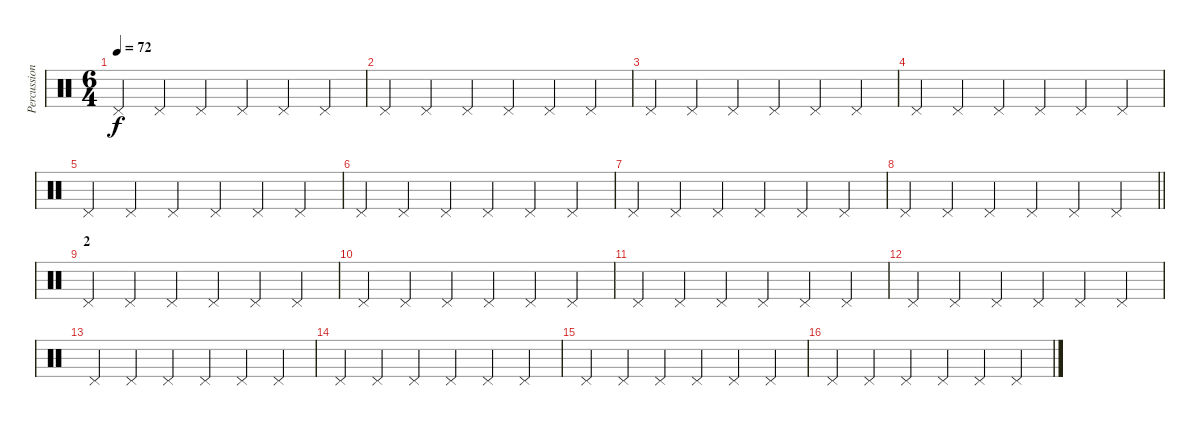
\track ("Percussion" "Percussion") {instrument percussion}
\staff {score}
\articulation defaults
\ts (6 4)
\tempo 72
\clef neutral
\ks c "Pedal Hi-Hat (hit)".4{dy f} "Pedal Hi-Hat (hit)".4 "Pedal Hi-Hat (hit)".4 "Pedal Hi-Hat (hit)".4 "Pedal Hi-Hat (hit)".4 "Pedal Hi-Hat (hit)".4
|
"Pedal Hi-Hat (hit)".4 "Pedal Hi-Hat (hit)".4 "Pedal Hi-Hat (hit)".4 "Pedal Hi-Hat (hit)".4 "Pedal Hi-Hat (hit)".4 "Pedal Hi-Hat (hit)".4 |
"Pedal Hi-Hat (hit)".4 "Pedal Hi-Hat (hit)".4 "Pedal Hi-Hat (hit)".4 "Pedal Hi-Hat (hit)".4 "Pedal Hi-Hat (hit)".4 "Pedal Hi-Hat (hit)".4 |
"Pedal Hi-Hat (hit)".4 "Pedal Hi-Hat (hit)".4 "Pedal Hi-Hat (hit)".4 "Pedal Hi-Hat (hit)".4 "Pedal Hi-Hat (hit)".4 "Pedal Hi-Hat (hit)".4 |
"Pedal Hi-Hat (hit)".4 "Pedal Hi-Hat (hit)".4 "Pedal Hi-Hat (hit)".4 "Pedal Hi-Hat (hit)".4 "Pedal Hi-Hat (hit)".4 "Pedal Hi-Hat (hit)".4 |
"Pedal Hi-Hat (hit)".4 "Pedal Hi-Hat (hit)".4 "Pedal Hi-Hat (hit)".4 "Pedal Hi-Hat (hit)".4 "Pedal Hi-Hat (hit)".4 "Pedal Hi-Hat (hit)".4 |
"Pedal Hi-Hat (hit)".4 "Pedal Hi-Hat (hit)".4 "Pedal Hi-Hat (hit)".4 "Pedal Hi-Hat (hit)".4 "Pedal Hi-Hat (hit)".4 "Pedal Hi-Hat (hit)".4 |
\barLineRight lightlight "Pedal Hi-Hat (hit)".4 "Pedal Hi-Hat (hit)".4 "Pedal Hi-Hat (hit)".4 "Pedal Hi-Hat (hit)".4 "Pedal Hi-Hat (hit)".4 "Pedal Hi-Hat (hit)".4
|
\section ("" "2")
"Pedal Hi-Hat (hit)".4 "Pedal Hi-Hat (hit)".4 "Pedal Hi-Hat (hit)".4 "Pedal Hi-Hat (hit)".4 "Pedal Hi-Hat (hit)".4 "Pedal Hi-Hat (hit)".4 |
"Pedal Hi-Hat (hit)".4 "Pedal Hi-Hat (hit)".4 "Pedal Hi-Hat (hit)".4 "Pedal Hi-Hat (hit)".4 "Pedal Hi-Hat (hit)".4 "Pedal Hi-Hat (hit)".4 |
"Pedal Hi-Hat (hit)".4 "Pedal Hi-Hat (hit)".4 "Pedal Hi-Hat (hit)".4 "Pedal Hi-Hat (hit)".4 "Pedal Hi-Hat (hit)".4 "Pedal Hi-Hat (hit)".4 |
"Pedal Hi-Hat (hit)".4 "Pedal Hi-Hat (hit)".4 "Pedal Hi-Hat (hit)".4 "Pedal Hi-Hat (hit)".4 "Pedal Hi-Hat (hit)".4 "Pedal Hi-Hat (hit)".4 |
"Pedal Hi-Hat (hit)".4 "Pedal Hi-Hat (hit)".4 "Pedal Hi-Hat (hit)".4 "Pedal Hi-Hat (hit)".4 "Pedal Hi-Hat (hit)".4 "Pedal Hi-Hat (hit)".4 |
"Pedal Hi-Hat (hit)".4 "Pedal Hi-Hat (hit)".4 "Pedal Hi-Hat (hit)".4 "Pedal Hi-Hat (hit)".4 "Pedal Hi-Hat (hit)".4 "Pedal Hi-Hat (hit)".4 |
"Pedal Hi-Hat (hit)".4 "Pedal Hi-Hat (hit)".4 "Pedal Hi-Hat (hit)".4 "Pedal Hi-Hat (hit)".4 "Pedal Hi-Hat (hit)".4 "Pedal Hi-Hat (hit)".4 |
"Pedal Hi-Hat (hit)".4 "Pedal Hi-Hat (hit)".4 "Pedal Hi-Hat (hit)".4 "Pedal Hi-Hat (hit)".4 "Pedal Hi-Hat (hit)".4 "Pedal Hi-Hat (hit)".4
